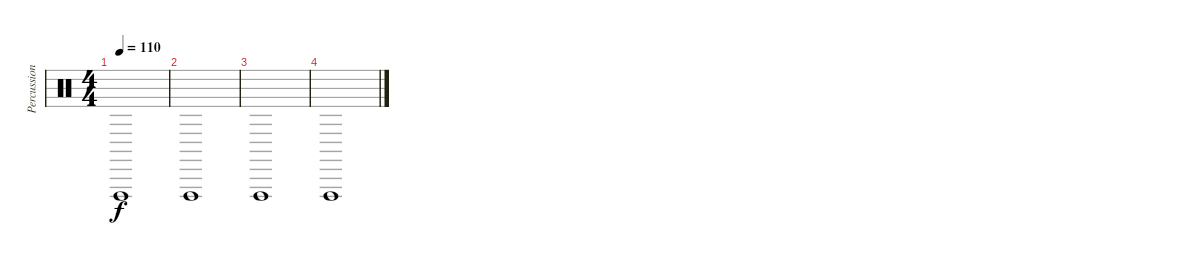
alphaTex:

\track ("Percussion" "Percussion") {instrument percussion}
\staff {score}
\articulation defaults
\ts (4 4)
\tempo 110
\clef neutral
\ks c "Vibraslap (hit)".1{dy f}
|
"Vibraslap (hit)".1 |
"Vibraslap (hit)".1 |
"Vibraslap (hit)".1
